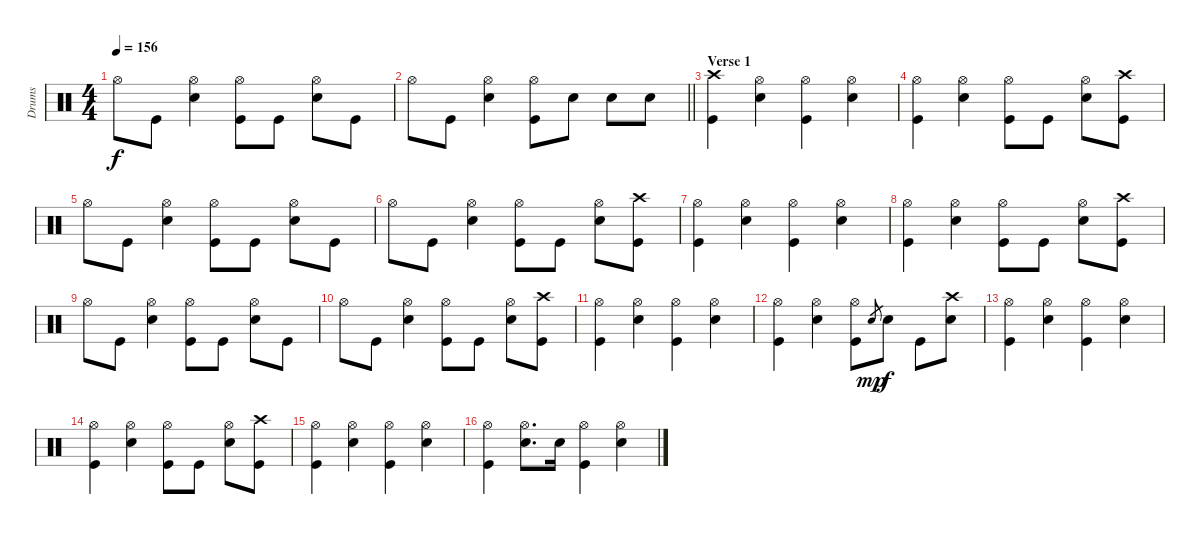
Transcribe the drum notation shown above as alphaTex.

\track ("Drums" "Drums") {instrument percussion}
\staff {score}
\articulation defaults
\ts (4 4)
\tempo 156
\clef neutral
\ks c "Hi-Hat (open)".8{dy f} "Kick (hit)".8
("Hi-Hat (open)" "Snare (hit) 2").4 ("Hi-Hat (open)" "Kick (hit)").8 "Kick (hit)".8 ("Hi-Hat (open)" "Snare (hit) 2").8 "Kick (hit)".8 |
\barLineRight lightlight "Hi-Hat (open)".8 "Kick (hit)".8
("Hi-Hat (open)" "Snare (hit) 2").4 ("Hi-Hat (open)" "Kick (hit)").8 "Snare (hit) 2".8 "Snare (hit) 2".8 "Snare (hit) 2".8 |
\section ("" "Verse 1")
("Crash high (hit)" "Kick (hit)").4 ("Hi-Hat (open)" "Snare (hit) 2").4 ("Hi-Hat (open)" "Kick (hit)").4 ("Hi-Hat (open)" "Snare (hit) 2").4 |
("Hi-Hat (open)" "Kick (hit)").4 ("Hi-Hat (open)" "Snare (hit) 2").4 ("Hi-Hat (open)" "Kick (hit)").8 "Kick (hit)".8 ("Hi-Hat (open)" "Snare (hit) 2").8 ("Crash high (hit)" "Kick (hit)").8 |
"Hi-Hat (open)".8 "Kick (hit)".8 ("Hi-Hat (open)" "Snare (hit) 2").4 ("Hi-Hat (open)" "Kick (hit)").8 "Kick (hit)".8 ("Hi-Hat (open)" "Snare (hit) 2").8 "Kick (hit)".8 |
"Hi-Hat (open)".8 "Kick (hit)".8 ("Hi-Hat (open)" "Snare (hit) 2").4 ("Hi-Hat (open)" "Kick (hit)").8 "Kick (hit)".8 ("Hi-Hat (open)" "Snare (hit) 2").8 ("Crash high (hit)" "Kick (hit)").8 |
("Hi-Hat (open)" "Kick (hit)").4 ("Hi-Hat (open)" "Snare (hit) 2").4 ("Hi-Hat (open)" "Kick (hit)").4 ("Hi-Hat (open)" "Snare (hit) 2").4 |
("Hi-Hat (open)" "Kick (hit)").4 ("Hi-Hat (open)" "Snare (hit) 2").4 ("Hi-Hat (open)" "Kick (hit)").8 "Kick (hit)".8 ("Hi-Hat (open)" "Snare (hit) 2").8 ("Crash high (hit)" "Kick (hit)").8 |
"Hi-Hat (open)".8 "Kick (hit)".8 ("Hi-Hat (open)" "Snare (hit) 2").4 ("Hi-Hat (open)" "Kick (hit)").8 "Kick (hit)".8 ("Hi-Hat (open)" "Snare (hit) 2").8 "Kick (hit)".8 |
"Hi-Hat (open)".8 "Kick (hit)".8 ("Hi-Hat (open)" "Snare (hit) 2").4 ("Hi-Hat (open)" "Kick (hit)").8 "Kick (hit)".8 ("Hi-Hat (open)" "Snare (hit) 2").8 ("Crash high (hit)" "Kick (hit)").8 |
("Hi-Hat (open)" "Kick (hit)").4 ("Hi-Hat (open)" "Snare (hit) 2").4 ("Hi-Hat (open)" "Kick (hit)").4 ("Hi-Hat (open)" "Snare (hit) 2").4 |
("Hi-Hat (open)" "Kick (hit)").4 ("Hi-Hat (open)" "Snare (hit) 2").4 ("Hi-Hat (open)" "Kick (hit)").8 "Snare (hit) 2".8{gr dy mp} "Snare (hit) 2".8{dy f} "Kick (hit)".8 ("Crash high (hit)" "Snare (hit) 2").8 |
("Hi-Hat (open)" "Kick (hit)").4 ("Hi-Hat (open)" "Snare (hit) 2").4 ("Hi-Hat (open)" "Kick (hit)").4 ("Hi-Hat (open)" "Snare (hit) 2").4 |
("Hi-Hat (open)" "Kick (hit)").4 ("Hi-Hat (open)" "Snare (hit) 2").4 ("Hi-Hat (open)" "Kick (hit)").8 "Kick (hit)".8 ("Hi-Hat (open)" "Snare (hit) 2").8 ("Crash high (hit)" "Kick (hit)").8 |
("Hi-Hat (open)" "Kick (hit)").4 ("Hi-Hat (open)" "Snare (hit) 2").4 ("Hi-Hat (open)" "Kick (hit)").4 ("Hi-Hat (open)" "Snare (hit) 2").4 |
("Hi-Hat (open)" "Kick (hit)").4 ("Hi-Hat (open)" "Snare (hit) 2").8{d} "Snare (hit) 2".16 ("Hi-Hat (open)" "Kick (hit)").4 ("Hi-Hat (open)" "Snare (hit) 2").4
